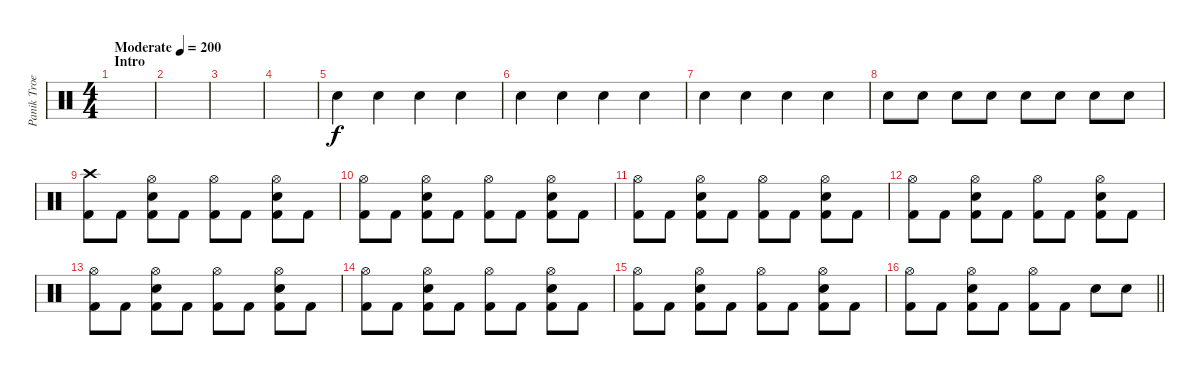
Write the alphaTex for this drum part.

\track ("Panik Troels ( Dengang )" "Panik Troe") {instrument percussion}
\staff {score}
\articulation defaults
\ts (4 4)
\section ("" "Intro")
\tempo (200 "Moderate")
\clef neutral
\ks c
|
|
|
|
"Snare (hit) 2".4 "Snare (hit) 2".4 "Snare (hit) 2".4 "Snare (hit) 2".4 |
"Snare (hit) 2".4 "Snare (hit) 2".4 "Snare (hit) 2".4 "Snare (hit) 2".4 |
"Snare (hit) 2".4 "Snare (hit) 2".4 "Snare (hit) 2".4 "Snare (hit) 2".4 |
"Snare (hit) 2".8 "Snare (hit) 2".8 "Snare (hit) 2".8 "Snare (hit) 2".8 "Snare (hit) 2".8 "Snare (hit) 2".8 "Snare (hit) 2".8 "Snare (hit) 2".8 |
("Kick (hit) 2" "Crash high (hit)").8 "Kick (hit) 2".8 ("Kick (hit) 2" "Hi-Hat (open)" "Snare (hit) 2").8 "Kick (hit) 2".8 ("Kick (hit) 2" "Hi-Hat (open)").8 "Kick (hit) 2".8 ("Kick (hit) 2" "Hi-Hat (open)" "Snare (hit) 2").8 "Kick (hit) 2".8 |
("Kick (hit) 2" "Hi-Hat (open)").8 "Kick (hit) 2".8 ("Kick (hit) 2" "Hi-Hat (open)" "Snare (hit) 2").8 "Kick (hit) 2".8 ("Kick (hit) 2" "Hi-Hat (open)").8 "Kick (hit) 2".8 ("Kick (hit) 2" "Hi-Hat (open)" "Snare (hit) 2").8 "Kick (hit) 2".8 |
("Kick (hit) 2" "Hi-Hat (open)").8 "Kick (hit) 2".8 ("Kick (hit) 2" "Hi-Hat (open)" "Snare (hit) 2").8 "Kick (hit) 2".8 ("Kick (hit) 2" "Hi-Hat (open)").8 "Kick (hit) 2".8 ("Kick (hit) 2" "Hi-Hat (open)" "Snare (hit) 2").8 "Kick (hit) 2".8 |
("Kick (hit) 2" "Hi-Hat (open)").8 "Kick (hit) 2".8 ("Kick (hit) 2" "Hi-Hat (open)" "Snare (hit) 2").8 "Kick (hit) 2".8 ("Kick (hit) 2" "Hi-Hat (open)").8 "Kick (hit) 2".8 ("Kick (hit) 2" "Hi-Hat (open)" "Snare (hit) 2").8 "Kick (hit) 2".8 |
("Kick (hit) 2" "Hi-Hat (open)").8 "Kick (hit) 2".8 ("Kick (hit) 2" "Hi-Hat (open)" "Snare (hit) 2").8 "Kick (hit) 2".8 ("Kick (hit) 2" "Hi-Hat (open)").8 "Kick (hit) 2".8 ("Kick (hit) 2" "Hi-Hat (open)" "Snare (hit) 2").8 "Kick (hit) 2".8 |
("Kick (hit) 2" "Hi-Hat (open)").8 "Kick (hit) 2".8 ("Kick (hit) 2" "Hi-Hat (open)" "Snare (hit) 2").8 "Kick (hit) 2".8 ("Kick (hit) 2" "Hi-Hat (open)").8 "Kick (hit) 2".8 ("Kick (hit) 2" "Hi-Hat (open)" "Snare (hit) 2").8 "Kick (hit) 2".8 |
("Kick (hit) 2" "Hi-Hat (open)").8 "Kick (hit) 2".8 ("Kick (hit) 2" "Hi-Hat (open)" "Snare (hit) 2").8 "Kick (hit) 2".8 ("Kick (hit) 2" "Hi-Hat (open)").8 "Kick (hit) 2".8 ("Kick (hit) 2" "Hi-Hat (open)" "Snare (hit) 2").8 "Kick (hit) 2".8 |
\barLineRight lightlight
("Kick (hit) 2" "Hi-Hat (open)").8 "Kick (hit) 2".8 ("Kick (hit) 2" "Hi-Hat (open)" "Snare (hit) 2").8 "Kick (hit) 2".8 ("Kick (hit) 2" "Hi-Hat (open)").8 "Kick (hit) 2".8 "Snare (hit) 2".8 "Snare (hit) 2".8
